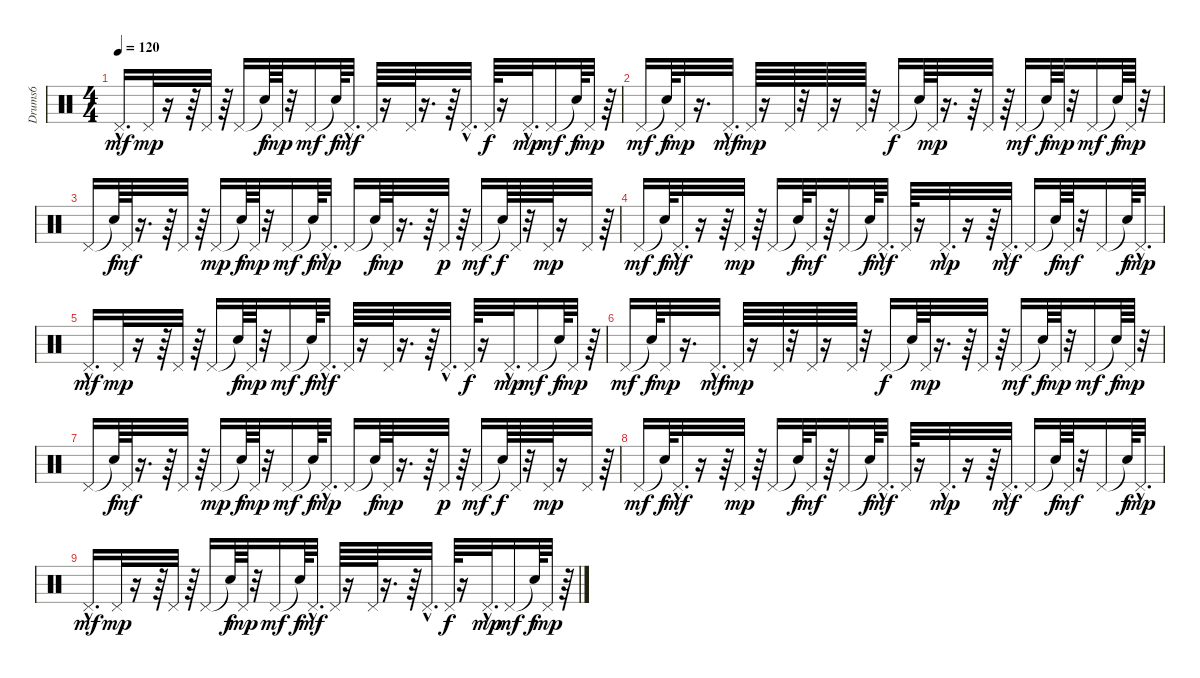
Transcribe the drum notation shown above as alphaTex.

\track ("Drums6" "Drums6") {instrument percussion}
\staff {score}
\articulation defaults
\ts (4 4)
\tempo 120
\clef neutral
\ks c "Pedal Hi-Hat (hit)"{hac}.16{d dy mf} "Pedal Hi-Hat (hit)".32{dy mp}
r.16 r.64 "Pedal Hi-Hat (hit)".32 r.64 "Pedal Hi-Hat (hit)".16 "Snare (hit)"{t}.64{dy f} "Pedal Hi-Hat (hit)".64{dy mp} r.32 "Pedal Hi-Hat (hit)".16{dy mf} "Snare (hit)"{t}.64{dy f} "Pedal Hi-Hat (hit)"{hac}.32{d dy mf} "Pedal Hi-Hat (hit)".64 r.16 "Pedal Hi-Hat (hit)".64 r.16{d} r.64 "Pedal Hi-Hat (hit)"{hac}.32{d} "Pedal Hi-Hat (hit)".64{dy f} r.16 "Pedal Hi-Hat (hit)"{hac}.32{d dy mp} "Pedal Hi-Hat (hit)".16{dy mf} "Snare (hit)"{t}.64{dy f} "Pedal Hi-Hat (hit)".32{dy mp} r.64 |
"Pedal Hi-Hat (hit)".16{dy mf} "Snare (hit)"{t}.64{dy f} "Pedal Hi-Hat (hit)".32{dy mp} r.16{d} "Pedal Hi-Hat (hit)"{hac}.32{d dy mf} "Pedal Hi-Hat (hit)".64{dy mp} r.16 "Pedal Hi-Hat (hit)".64 r.32 "Pedal Hi-Hat (hit)".64 r.16 "Pedal Hi-Hat (hit)".64 r.32 "Pedal Hi-Hat (hit)".16{dy f} "Snare (hit)"{t}.64 "Pedal Hi-Hat (hit)".64{dy mp} r.16{d} r.64 "Pedal Hi-Hat (hit)".32 r.64 "Pedal Hi-Hat (hit)".16{dy mf} "Snare (hit)"{t}.64{dy f} "Pedal Hi-Hat (hit)".64{dy mp} r.32 "Pedal Hi-Hat (hit)".16{dy mf} "Snare (hit)"{t}.64{dy f} "Pedal Hi-Hat (hit)".64{dy mp} r.32 |
"Pedal Hi-Hat (hit)".16 "Snare (hit)"{t}.64{dy f} "Pedal Hi-Hat (hit)".64{dy mf} r.16{d} r.64 "Pedal Hi-Hat (hit)".32 r.64 "Pedal Hi-Hat (hit)".16{dy mp} "Snare (hit)"{t}.64{dy f} "Pedal Hi-Hat (hit)".64{dy mp} r.32 "Pedal Hi-Hat (hit)".16{dy mf} "Snare (hit)"{t}.64{dy f} "Pedal Hi-Hat (hit)"{hac}.32{d dy mp} "Pedal Hi-Hat (hit)".16 "Snare (hit)"{t}.64{dy f} "Pedal Hi-Hat (hit)".64{dy mp} r.16{d} r.64 "Pedal Hi-Hat (hit)".32{dy p} r.64 "Pedal Hi-Hat (hit)".16{dy mf} "Snare (hit)"{t}.64{dy f} "Pedal Hi-Hat (hit)".64 r.32 "Pedal Hi-Hat (hit)".64{dy mp} r.16 "Pedal Hi-Hat (hit)".32 r.64 |
"Pedal Hi-Hat (hit)".16{dy mf} "Snare (hit)"{t}.64{dy f} "Pedal Hi-Hat (hit)"{hac}.32{d dy mf} r.16 r.64 "Pedal Hi-Hat (hit)".32{dy mp} r.64 "Pedal Hi-Hat (hit)".16 "Snare (hit)"{t}.64{dy f} "Pedal Hi-Hat (hit)".32{dy mf} r.64 "Pedal Hi-Hat (hit)".16 "Snare (hit)"{t}.64{dy f} "Pedal Hi-Hat (hit)"{hac}.32{d dy mf} "Pedal Hi-Hat (hit)".64 r.16 "Pedal Hi-Hat (hit)"{hac}.32{d dy mp} r.16 r.64 "Pedal Hi-Hat (hit)"{hac}.32{d dy mf} "Pedal Hi-Hat (hit)".16 "Snare (hit)"{t}.64{dy f} "Pedal Hi-Hat (hit)".64{dy mf} r.32 "Pedal Hi-Hat (hit)".16 "Snare (hit)"{t}.64{dy f} "Pedal Hi-Hat (hit)"{hac}.32{d dy mp} |
"Pedal Hi-Hat (hit)"{hac}.16{d dy mf} "Pedal Hi-Hat (hit)".32{dy mp} r.16 r.64 "Pedal Hi-Hat (hit)".32 r.64 "Pedal Hi-Hat (hit)".16 "Snare (hit)"{t}.64{dy f} "Pedal Hi-Hat (hit)".64{dy mp} r.32 "Pedal Hi-Hat (hit)".16{dy mf} "Snare (hit)"{t}.64{dy f} "Pedal Hi-Hat (hit)"{hac}.32{d dy mf} "Pedal Hi-Hat (hit)".64 r.16 "Pedal Hi-Hat (hit)".64 r.16{d} r.64 "Pedal Hi-Hat (hit)"{hac}.32{d} "Pedal Hi-Hat (hit)".64{dy f} r.16 "Pedal Hi-Hat (hit)"{hac}.32{d dy mp} "Pedal Hi-Hat (hit)".16{dy mf} "Snare (hit)"{t}.64{dy f} "Pedal Hi-Hat (hit)".32{dy mp} r.64 |
"Pedal Hi-Hat (hit)".16{dy mf} "Snare (hit)"{t}.64{dy f} "Pedal Hi-Hat (hit)".32{dy mp} r.16{d} "Pedal Hi-Hat (hit)"{hac}.32{d dy mf} "Pedal Hi-Hat (hit)".64{dy mp} r.16 "Pedal Hi-Hat (hit)".64 r.32 "Pedal Hi-Hat (hit)".64 r.16 "Pedal Hi-Hat (hit)".64 r.32 "Pedal Hi-Hat (hit)".16{dy f} "Snare (hit)"{t}.64 "Pedal Hi-Hat (hit)".64{dy mp} r.16{d} r.64 "Pedal Hi-Hat (hit)".32 r.64 "Pedal Hi-Hat (hit)".16{dy mf} "Snare (hit)"{t}.64{dy f} "Pedal Hi-Hat (hit)".64{dy mp} r.32 "Pedal Hi-Hat (hit)".16{dy mf} "Snare (hit)"{t}.64{dy f} "Pedal Hi-Hat (hit)".64{dy mp} r.32 |
"Pedal Hi-Hat (hit)".16 "Snare (hit)"{t}.64{dy f} "Pedal Hi-Hat (hit)".64{dy mf} r.16{d} r.64 "Pedal Hi-Hat (hit)".32 r.64 "Pedal Hi-Hat (hit)".16{dy mp} "Snare (hit)"{t}.64{dy f} "Pedal Hi-Hat (hit)".64{dy mp} r.32 "Pedal Hi-Hat (hit)".16{dy mf} "Snare (hit)"{t}.64{dy f} "Pedal Hi-Hat (hit)"{hac}.32{d dy mp} "Pedal Hi-Hat (hit)".16 "Snare (hit)"{t}.64{dy f} "Pedal Hi-Hat (hit)".64{dy mp} r.16{d} r.64 "Pedal Hi-Hat (hit)".32{dy p} r.64 "Pedal Hi-Hat (hit)".16{dy mf} "Snare (hit)"{t}.64{dy f} "Pedal Hi-Hat (hit)".64 r.32 "Pedal Hi-Hat (hit)".64{dy mp} r.16 "Pedal Hi-Hat (hit)".32 r.64 |
"Pedal Hi-Hat (hit)".16{dy mf} "Snare (hit)"{t}.64{dy f} "Pedal Hi-Hat (hit)"{hac}.32{d dy mf} r.16 r.64 "Pedal Hi-Hat (hit)".32{dy mp} r.64 "Pedal Hi-Hat (hit)".16 "Snare (hit)"{t}.64{dy f} "Pedal Hi-Hat (hit)".32{dy mf} r.64 "Pedal Hi-Hat (hit)".16 "Snare (hit)"{t}.64{dy f} "Pedal Hi-Hat (hit)"{hac}.32{d dy mf} "Pedal Hi-Hat (hit)".64 r.16 "Pedal Hi-Hat (hit)"{hac}.32{d dy mp} r.16 r.64 "Pedal Hi-Hat (hit)"{hac}.32{d dy mf} "Pedal Hi-Hat (hit)".16 "Snare (hit)"{t}.64{dy f} "Pedal Hi-Hat (hit)".64{dy mf} r.32 "Pedal Hi-Hat (hit)".16 "Snare (hit)"{t}.64{dy f} "Pedal Hi-Hat (hit)"{hac}.32{d dy mp} |
"Pedal Hi-Hat (hit)"{hac}.16{d dy mf} "Pedal Hi-Hat (hit)".32{dy mp} r.16 r.64 "Pedal Hi-Hat (hit)".32 r.64 "Pedal Hi-Hat (hit)".16 "Snare (hit)"{t}.64{dy f} "Pedal Hi-Hat (hit)".64{dy mp} r.32 "Pedal Hi-Hat (hit)".16{dy mf} "Snare (hit)"{t}.64{dy f} "Pedal Hi-Hat (hit)"{hac}.32{d dy mf} "Pedal Hi-Hat (hit)".64 r.16 "Pedal Hi-Hat (hit)".64 r.16{d} r.64 "Pedal Hi-Hat (hit)"{hac}.32{d} "Pedal Hi-Hat (hit)".64{dy f} r.16 "Pedal Hi-Hat (hit)"{hac}.32{d dy mp} "Pedal Hi-Hat (hit)".16{dy mf} "Snare (hit)"{t}.64{dy f} "Pedal Hi-Hat (hit)".32{dy mp} r.64
